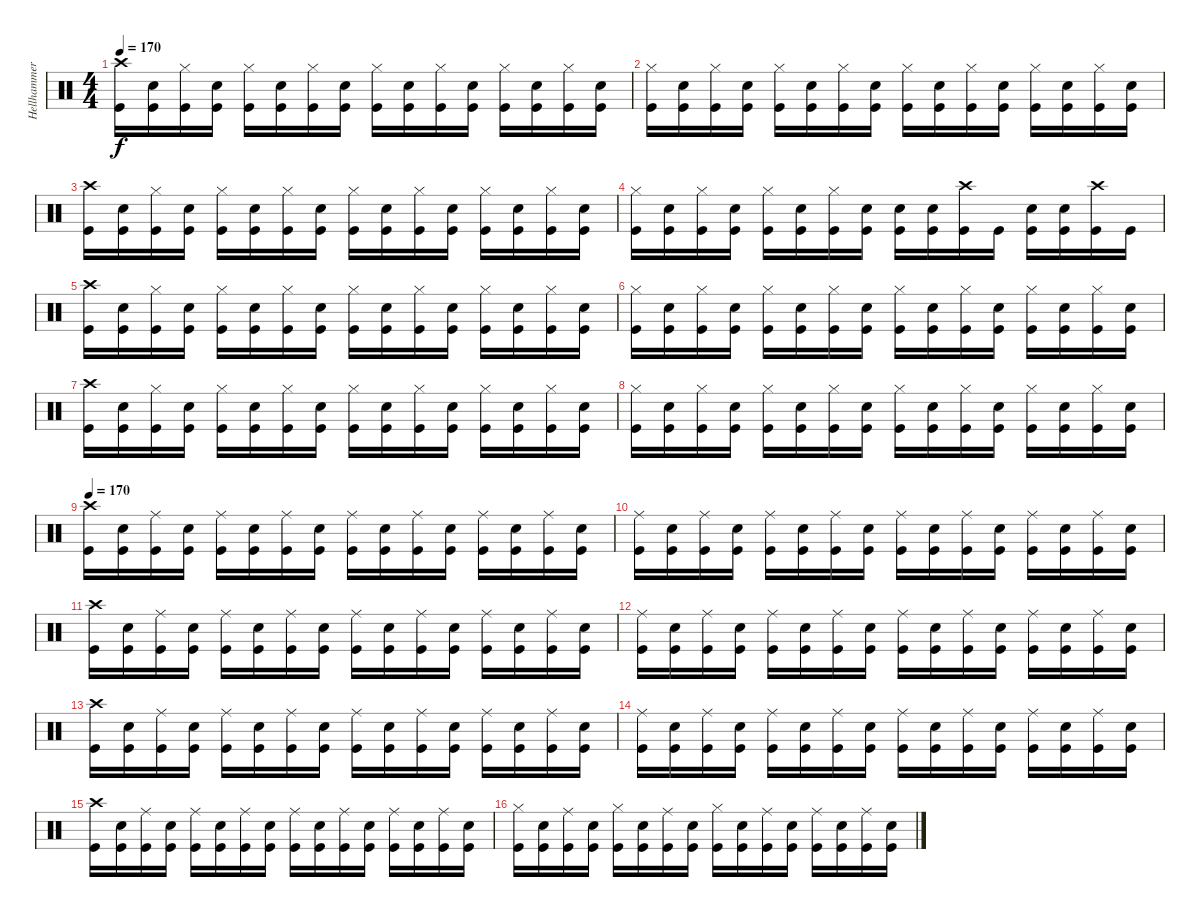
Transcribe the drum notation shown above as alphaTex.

\track ("Hellhammer" "Hellhammer") {instrument percussion}
\staff {score}
\articulation defaults
\ts (4 4)
\tempo 170
\clef neutral
\ks c
("Crash high (hit)" "Kick (hit)").16{dy f} ("Electric Snare (hit)" "Kick (hit)").16 ("Hi-Hat (closed)" "Kick (hit)").16 ("Electric Snare (hit)" "Kick (hit)").16 ("Hi-Hat (closed)" "Kick (hit)").16 ("Electric Snare (hit)" "Kick (hit)").16 ("Hi-Hat (closed)" "Kick (hit)").16 ("Electric Snare (hit)" "Kick (hit)").16 ("Hi-Hat (closed)" "Kick (hit)").16 ("Electric Snare (hit)" "Kick (hit)").16 ("Hi-Hat (closed)" "Kick (hit)").16 ("Electric Snare (hit)" "Kick (hit)").16 ("Hi-Hat (closed)" "Kick (hit)").16 ("Electric Snare (hit)" "Kick (hit)").16 ("Hi-Hat (closed)" "Kick (hit)").16 ("Electric Snare (hit)" "Kick (hit)").16 |
("Hi-Hat (closed)" "Kick (hit)").16 ("Electric Snare (hit)" "Kick (hit)").16 ("Hi-Hat (closed)" "Kick (hit)").16 ("Electric Snare (hit)" "Kick (hit)").16 ("Hi-Hat (closed)" "Kick (hit)").16 ("Electric Snare (hit)" "Kick (hit)").16 ("Hi-Hat (closed)" "Kick (hit)").16 ("Electric Snare (hit)" "Kick (hit)").16 ("Hi-Hat (closed)" "Kick (hit)").16 ("Electric Snare (hit)" "Kick (hit)").16 ("Hi-Hat (closed)" "Kick (hit)").16 ("Electric Snare (hit)" "Kick (hit)").16 ("Hi-Hat (closed)" "Kick (hit)").16 ("Electric Snare (hit)" "Kick (hit)").16 ("Hi-Hat (closed)" "Kick (hit)").16 ("Electric Snare (hit)" "Kick (hit)").16 |
("Crash high (hit)" "Kick (hit)").16 ("Electric Snare (hit)" "Kick (hit)").16 ("Hi-Hat (closed)" "Kick (hit)").16 ("Electric Snare (hit)" "Kick (hit)").16 ("Hi-Hat (closed)" "Kick (hit)").16 ("Electric Snare (hit)" "Kick (hit)").16 ("Hi-Hat (closed)" "Kick (hit)").16 ("Electric Snare (hit)" "Kick (hit)").16 ("Hi-Hat (closed)" "Kick (hit)").16 ("Electric Snare (hit)" "Kick (hit)").16 ("Hi-Hat (closed)" "Kick (hit)").16 ("Electric Snare (hit)" "Kick (hit)").16 ("Hi-Hat (closed)" "Kick (hit)").16 ("Electric Snare (hit)" "Kick (hit)").16 ("Hi-Hat (closed)" "Kick (hit)").16 ("Electric Snare (hit)" "Kick (hit)").16 |
("Hi-Hat (closed)" "Kick (hit)").16 ("Electric Snare (hit)" "Kick (hit)").16 ("Hi-Hat (closed)" "Kick (hit)").16 ("Electric Snare (hit)" "Kick (hit)").16 ("Hi-Hat (closed)" "Kick (hit)").16 ("Electric Snare (hit)" "Kick (hit)").16 ("Hi-Hat (closed)" "Kick (hit)").16 ("Electric Snare (hit)" "Kick (hit)").16 ("Electric Snare (hit)" "Kick (hit)").16 ("Electric Snare (hit)" "Kick (hit)").16 ("Crash high (hit)" "Kick (hit)").16 "Kick (hit)".16 ("Electric Snare (hit)" "Kick (hit)").16 ("Electric Snare (hit)" "Kick (hit)").16 ("Crash high (hit)" "Kick (hit)").16 "Kick (hit)".16 |
("Crash high (hit)" "Kick (hit)").16 ("Electric Snare (hit)" "Kick (hit)").16 ("Hi-Hat (closed)" "Kick (hit)").16 ("Electric Snare (hit)" "Kick (hit)").16 ("Hi-Hat (closed)" "Kick (hit)").16 ("Electric Snare (hit)" "Kick (hit)").16 ("Hi-Hat (closed)" "Kick (hit)").16 ("Electric Snare (hit)" "Kick (hit)").16 ("Hi-Hat (closed)" "Kick (hit)").16 ("Electric Snare (hit)" "Kick (hit)").16 ("Hi-Hat (closed)" "Kick (hit)").16 ("Electric Snare (hit)" "Kick (hit)").16 ("Hi-Hat (closed)" "Kick (hit)").16 ("Electric Snare (hit)" "Kick (hit)").16 ("Hi-Hat (closed)" "Kick (hit)").16 ("Electric Snare (hit)" "Kick (hit)").16 |
("Hi-Hat (closed)" "Kick (hit)").16 ("Electric Snare (hit)" "Kick (hit)").16 ("Hi-Hat (closed)" "Kick (hit)").16 ("Electric Snare (hit)" "Kick (hit)").16 ("Hi-Hat (closed)" "Kick (hit)").16 ("Electric Snare (hit)" "Kick (hit)").16 ("Hi-Hat (closed)" "Kick (hit)").16 ("Electric Snare (hit)" "Kick (hit)").16 ("Hi-Hat (closed)" "Kick (hit)").16 ("Electric Snare (hit)" "Kick (hit)").16 ("Hi-Hat (closed)" "Kick (hit)").16 ("Electric Snare (hit)" "Kick (hit)").16 ("Hi-Hat (closed)" "Kick (hit)").16 ("Electric Snare (hit)" "Kick (hit)").16 ("Hi-Hat (closed)" "Kick (hit)").16 ("Electric Snare (hit)" "Kick (hit)").16 |
("Crash high (hit)" "Kick (hit)").16 ("Electric Snare (hit)" "Kick (hit)").16 ("Hi-Hat (closed)" "Kick (hit)").16 ("Electric Snare (hit)" "Kick (hit)").16 ("Hi-Hat (closed)" "Kick (hit)").16 ("Electric Snare (hit)" "Kick (hit)").16 ("Hi-Hat (closed)" "Kick (hit)").16 ("Electric Snare (hit)" "Kick (hit)").16 ("Hi-Hat (closed)" "Kick (hit)").16 ("Electric Snare (hit)" "Kick (hit)").16 ("Hi-Hat (closed)" "Kick (hit)").16 ("Electric Snare (hit)" "Kick (hit)").16 ("Hi-Hat (closed)" "Kick (hit)").16 ("Electric Snare (hit)" "Kick (hit)").16 ("Hi-Hat (closed)" "Kick (hit)").16 ("Electric Snare (hit)" "Kick (hit)").16 |
("Hi-Hat (closed)" "Kick (hit)").16 ("Electric Snare (hit)" "Kick (hit)").16 ("Hi-Hat (closed)" "Kick (hit)").16 ("Electric Snare (hit)" "Kick (hit)").16 ("Hi-Hat (closed)" "Kick (hit)").16 ("Electric Snare (hit)" "Kick (hit)").16 ("Hi-Hat (closed)" "Kick (hit)").16 ("Electric Snare (hit)" "Kick (hit)").16 ("Hi-Hat (closed)" "Kick (hit)").16 ("Electric Snare (hit)" "Kick (hit)").16 ("Hi-Hat (closed)" "Kick (hit)").16 ("Electric Snare (hit)" "Kick (hit)").16 ("Hi-Hat (closed)" "Kick (hit)").16 ("Electric Snare (hit)" "Kick (hit)").16 ("Hi-Hat (closed)" "Kick (hit)").16 ("Electric Snare (hit)" "Kick (hit)").16 |
\tempo 170
("Crash high (hit)" "Kick (hit)").16 ("Electric Snare (hit)" "Kick (hit)").16 ("Ride (middle)" "Kick (hit)").16 ("Electric Snare (hit)" "Kick (hit)").16 ("Ride (middle)" "Kick (hit)").16 ("Electric Snare (hit)" "Kick (hit)").16 ("Ride (middle)" "Kick (hit)").16 ("Electric Snare (hit)" "Kick (hit)").16 ("Ride (middle)" "Kick (hit)").16 ("Electric Snare (hit)" "Kick (hit)").16 ("Ride (middle)" "Kick (hit)").16 ("Electric Snare (hit)" "Kick (hit)").16 ("Ride (middle)" "Kick (hit)").16 ("Electric Snare (hit)" "Kick (hit)").16 ("Ride (middle)" "Kick (hit)").16 ("Electric Snare (hit)" "Kick (hit)").16 |
("Ride (middle)" "Kick (hit)").16 ("Electric Snare (hit)" "Kick (hit)").16 ("Ride (middle)" "Kick (hit)").16 ("Electric Snare (hit)" "Kick (hit)").16 ("Ride (middle)" "Kick (hit)").16 ("Electric Snare (hit)" "Kick (hit)").16 ("Ride (middle)" "Kick (hit)").16 ("Electric Snare (hit)" "Kick (hit)").16 ("Ride (middle)" "Kick (hit)").16 ("Electric Snare (hit)" "Kick (hit)").16 ("Ride (middle)" "Kick (hit)").16 ("Electric Snare (hit)" "Kick (hit)").16 ("Ride (middle)" "Kick (hit)").16 ("Electric Snare (hit)" "Kick (hit)").16 ("Ride (middle)" "Kick (hit)").16 ("Electric Snare (hit)" "Kick (hit)").16 |
("Crash high (hit)" "Kick (hit)").16 ("Electric Snare (hit)" "Kick (hit)").16 ("Ride (middle)" "Kick (hit)").16 ("Electric Snare (hit)" "Kick (hit)").16 ("Ride (middle)" "Kick (hit)").16 ("Electric Snare (hit)" "Kick (hit)").16 ("Ride (middle)" "Kick (hit)").16 ("Electric Snare (hit)" "Kick (hit)").16 ("Ride (middle)" "Kick (hit)").16 ("Electric Snare (hit)" "Kick (hit)").16 ("Ride (middle)" "Kick (hit)").16 ("Electric Snare (hit)" "Kick (hit)").16 ("Ride (middle)" "Kick (hit)").16 ("Electric Snare (hit)" "Kick (hit)").16 ("Ride (middle)" "Kick (hit)").16 ("Electric Snare (hit)" "Kick (hit)").16 |
("Ride (middle)" "Kick (hit)").16 ("Electric Snare (hit)" "Kick (hit)").16 ("Ride (middle)" "Kick (hit)").16 ("Electric Snare (hit)" "Kick (hit)").16 ("Ride (middle)" "Kick (hit)").16 ("Electric Snare (hit)" "Kick (hit)").16 ("Ride (middle)" "Kick (hit)").16 ("Electric Snare (hit)" "Kick (hit)").16 ("Ride (middle)" "Kick (hit)").16 ("Electric Snare (hit)" "Kick (hit)").16 ("Ride (middle)" "Kick (hit)").16 ("Electric Snare (hit)" "Kick (hit)").16 ("Ride (middle)" "Kick (hit)").16 ("Electric Snare (hit)" "Kick (hit)").16 ("Ride (middle)" "Kick (hit)").16 ("Electric Snare (hit)" "Kick (hit)").16 |
("Crash high (hit)" "Kick (hit)").16 ("Electric Snare (hit)" "Kick (hit)").16 ("Ride (middle)" "Kick (hit)").16 ("Electric Snare (hit)" "Kick (hit)").16 ("Ride (middle)" "Kick (hit)").16 ("Electric Snare (hit)" "Kick (hit)").16 ("Ride (middle)" "Kick (hit)").16 ("Electric Snare (hit)" "Kick (hit)").16 ("Ride (middle)" "Kick (hit)").16 ("Electric Snare (hit)" "Kick (hit)").16 ("Ride (middle)" "Kick (hit)").16 ("Electric Snare (hit)" "Kick (hit)").16 ("Ride (middle)" "Kick (hit)").16 ("Electric Snare (hit)" "Kick (hit)").16 ("Ride (middle)" "Kick (hit)").16 ("Electric Snare (hit)" "Kick (hit)").16 |
("Ride (middle)" "Kick (hit)").16 ("Electric Snare (hit)" "Kick (hit)").16 ("Ride (middle)" "Kick (hit)").16 ("Electric Snare (hit)" "Kick (hit)").16 ("Ride (middle)" "Kick (hit)").16 ("Electric Snare (hit)" "Kick (hit)").16 ("Ride (middle)" "Kick (hit)").16 ("Electric Snare (hit)" "Kick (hit)").16 ("Ride (middle)" "Kick (hit)").16 ("Electric Snare (hit)" "Kick (hit)").16 ("Ride (middle)" "Kick (hit)").16 ("Electric Snare (hit)" "Kick (hit)").16 ("Ride (middle)" "Kick (hit)").16 ("Electric Snare (hit)" "Kick (hit)").16 ("Ride (middle)" "Kick (hit)").16 ("Electric Snare (hit)" "Kick (hit)").16 |
("Crash high (hit)" "Kick (hit)").16 ("Electric Snare (hit)" "Kick (hit)").16 ("Ride (middle)" "Kick (hit)").16 ("Electric Snare (hit)" "Kick (hit)").16 ("Ride (middle)" "Kick (hit)").16 ("Electric Snare (hit)" "Kick (hit)").16 ("Ride (middle)" "Kick (hit)").16 ("Electric Snare (hit)" "Kick (hit)").16 ("Ride (middle)" "Kick (hit)").16 ("Electric Snare (hit)" "Kick (hit)").16 ("Ride (middle)" "Kick (hit)").16 ("Electric Snare (hit)" "Kick (hit)").16 ("Ride (middle)" "Kick (hit)").16 ("Electric Snare (hit)" "Kick (hit)").16 ("Ride (middle)" "Kick (hit)").16 ("Electric Snare (hit)" "Kick (hit)").16 |
("Hi-Hat (closed)" "Kick (hit)").16 ("Electric Snare (hit)" "Kick (hit)").16 ("Ride (middle)" "Kick (hit)").16 ("Electric Snare (hit)" "Kick (hit)").16 ("Hi-Hat (closed)" "Kick (hit)").16 ("Electric Snare (hit)" "Kick (hit)").16 ("Ride (middle)" "Kick (hit)").16 ("Electric Snare (hit)" "Kick (hit)").16 ("Hi-Hat (closed)" "Kick (hit)").16 ("Electric Snare (hit)" "Kick (hit)").16 ("Ride (middle)" "Kick (hit)").16 ("Electric Snare (hit)" "Kick (hit)").16 ("Ride (middle)" "Kick (hit)").16 ("Electric Snare (hit)" "Kick (hit)").16 ("Ride (middle)" "Kick (hit)").16 ("Electric Snare (hit)" "Kick (hit)").16
